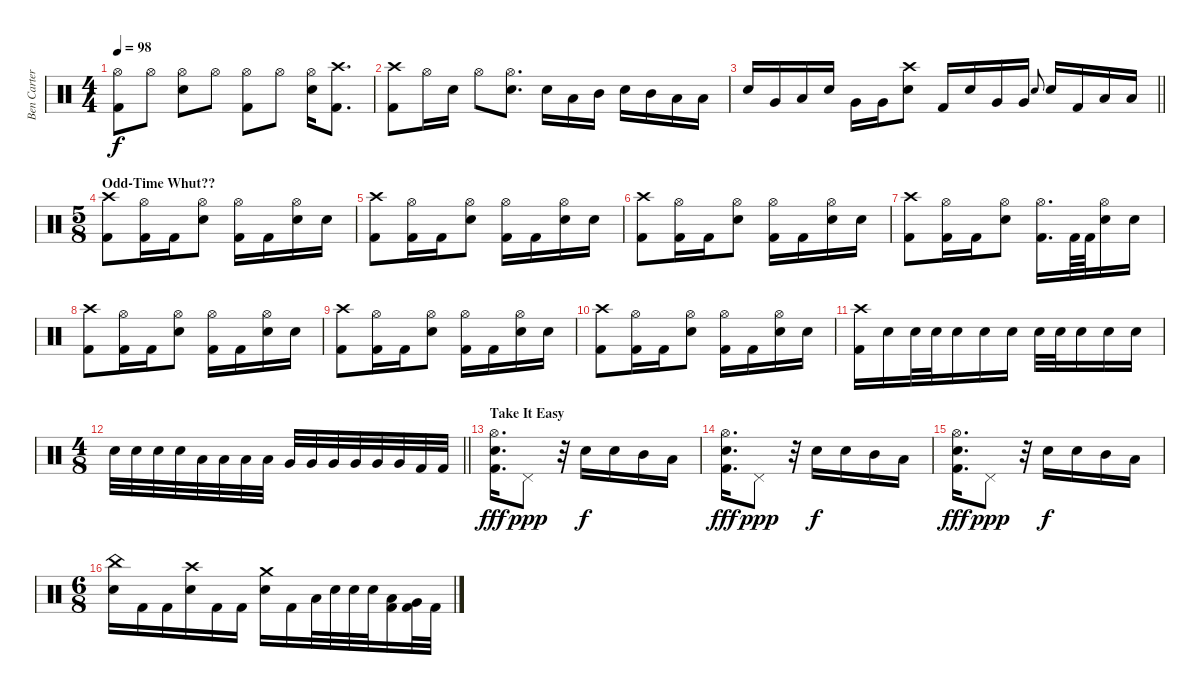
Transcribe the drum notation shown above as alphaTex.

\track ("Ben Carter" "Ben Carter") {instrument percussion}
\staff {score}
\articulation defaults
\ts (4 4)
\tempo 98
\clef neutral
\ks c
("Hi-Hat (open)" "Kick (hit) 2").8{dy f} "Hi-Hat (open)".8 ("Hi-Hat (open)" "Snare (hit) 2").8 "Hi-Hat (open)".8 ("Hi-Hat (open)" "Kick (hit) 2").8 "Hi-Hat (open)".8 ("Hi-Hat (open)" "Snare (hit) 2").16 ("Crash high (hit)" "Kick (hit) 2").8{d} |
("Crash high (hit)" "Kick (hit) 2").8 "Hi-Hat (open)".16 "Snare (hit) 2".16 "Hi-Hat (open)".8 ("Hi-Hat (open)" "Snare (hit) 2").8{d} "Snare (hit) 2".16 "Low Tom (hit)".16 "Mid Tom (hit)".16 "Snare (hit) 2".16 "Mid Tom (hit)".16 "Low Tom (hit)".16 "Low Tom (hit)".16 |
\barLineRight lightlight "Snare (hit) 2".16 "Very Low Tom (hit)".16 "Low Tom (hit)".16 "Snare (hit) 2".16 "Very Low Tom (hit)".16 "Very Low Tom (hit)".16
("Crash high (hit)" "Snare (hit) 2").8 "Kick (hit) 2".16 "Snare (hit) 2".16 "Very Low Tom (hit)".16 "Very Low Tom (hit)".16 "Snare (hit) 2".8{gr onbeat} "Snare (hit) 2".16 "Kick (hit) 2".16 "Low Floor Tom (hit)".16 "Low Floor Tom (hit)".16 |
\ts (5 8)
\section ("" "Odd-Time Whut??")
("Crash high (hit)" "Kick (hit) 2").8 ("Hi-Hat (open)" "Kick (hit) 2").16 "Kick (hit) 2".16 ("Hi-Hat (open)" "Snare (hit) 2").8 ("Hi-Hat (open)" "Kick (hit) 2").16 "Kick (hit) 2".16 ("Hi-Hat (open)" "Snare (hit) 2").16 "Snare (hit) 2".16 |
("Crash high (hit)" "Kick (hit) 2").8 ("Hi-Hat (open)" "Kick (hit) 2").16 "Kick (hit) 2".16 ("Hi-Hat (open)" "Snare (hit) 2").8 ("Hi-Hat (open)" "Kick (hit) 2").16 "Kick (hit) 2".16 ("Hi-Hat (open)" "Snare (hit) 2").16 "Snare (hit) 2".16 |
("Crash high (hit)" "Kick (hit) 2").8 ("Hi-Hat (open)" "Kick (hit) 2").16 "Kick (hit) 2".16 ("Hi-Hat (open)" "Snare (hit) 2").8 ("Hi-Hat (open)" "Kick (hit) 2").16 "Kick (hit) 2".16 ("Hi-Hat (open)" "Snare (hit) 2").16 "Snare (hit) 2".16 |
("Crash high (hit)" "Kick (hit) 2").8 ("Hi-Hat (open)" "Kick (hit) 2").16 "Kick (hit) 2".16 ("Hi-Hat (open)" "Snare (hit) 2").8 ("Hi-Hat (open)" "Kick (hit) 2").16{d} "Kick (hit) 2".64 "Kick (hit) 2".64 ("Hi-Hat (open)" "Snare (hit) 2").16 "Snare (hit) 2".16 |
("Crash high (hit)" "Kick (hit) 2").8 ("Hi-Hat (open)" "Kick (hit) 2").16 "Kick (hit) 2".16 ("Hi-Hat (open)" "Snare (hit) 2").8 ("Hi-Hat (open)" "Kick (hit) 2").16 "Kick (hit) 2".16 ("Hi-Hat (open)" "Snare (hit) 2").16 "Snare (hit) 2".16 |
("Crash high (hit)" "Kick (hit) 2").8 ("Hi-Hat (open)" "Kick (hit) 2").16 "Kick (hit) 2".16 ("Hi-Hat (open)" "Snare (hit) 2").8 ("Hi-Hat (open)" "Kick (hit) 2").16 "Kick (hit) 2".16 ("Hi-Hat (open)" "Snare (hit) 2").16 "Snare (hit) 2".16 |
("Crash high (hit)" "Kick (hit) 2").8 ("Hi-Hat (open)" "Kick (hit) 2").16 "Kick (hit) 2".16 ("Hi-Hat (open)" "Snare (hit) 2").8 ("Hi-Hat (open)" "Kick (hit) 2").16 "Kick (hit) 2".16 ("Hi-Hat (open)" "Snare (hit) 2").16 "Snare (hit) 2".16 |
("Crash high (hit)" "Kick (hit) 2").16 "Snare (hit) 2".16 "Snare (hit) 2".32 "Snare (hit) 2".32 "Snare (hit) 2".16 "Snare (hit) 2".16 "Snare (hit) 2".16 "Snare (hit) 2".32 "Snare (hit) 2".32 "Snare (hit) 2".16 "Snare (hit) 2".16 "Snare (hit) 2".16 |
\ts (4 8)
\barLineRight lightlight "Snare (hit) 2".32 "Snare (hit) 2".32 "Snare (hit) 2".32 "Snare (hit) 2".32 "Low Tom (hit)".32 "Low Tom (hit)".32 "Low Tom (hit)".32 "Low Tom (hit)".32 "Very Low Tom (hit)".32 "Very Low Tom (hit)".32 "Very Low Tom (hit)".32 "Very Low Tom (hit)".32 "Very Low Tom (hit)".32 "Very Low Tom (hit)".32 "Kick (hit) 2".32 "Kick (hit) 2".32
|
\section ("" "Take It Easy")
("Hi-Hat (open)" "Snare (hit) 2" "Kick (hit) 2").16{d dy fff} "Pedal Hi-Hat (hit)".8{dy ppp} r.32 "Snare (hit) 2".16{dy f} "Snare (hit) 2".16 "Mid Tom (hit)".16 "Low Tom (hit)".16 |
("Hi-Hat (open)" "Snare (hit) 2" "Kick (hit) 2").16{d dy fff} "Pedal Hi-Hat (hit)".8{dy ppp} r.32 "Snare (hit) 2".16{dy f} "Snare (hit) 2".16 "Mid Tom (hit)".16 "Low Tom (hit)".16 |
("Hi-Hat (open)" "Snare (hit) 2" "Kick (hit) 2").16{d dy fff} "Pedal Hi-Hat (hit)".8{dy ppp} r.32 "Snare (hit) 2".16{dy f} "Snare (hit) 2".16 "Mid Tom (hit)".16 "Low Tom (hit)".16 |
\ts (6 8)
("China (hit)" "Snare (hit) 2").16 "Kick (hit) 2".16 "Kick (hit) 2".16 ("Crash high (hit)" "Snare (hit) 2").16 "Kick (hit) 2".16 "Kick (hit) 2".16 ("Crash medium (hit)" "Snare (hit) 2").16 "Kick (hit) 2".16 "Low Tom (hit)".32 "Snare (hit) 2".32 "Snare (hit) 2".32 "Snare (hit) 2".32 ("Low Tom (hit)" "Kick (hit) 2").16 ("Very Low Tom (hit)" "Kick (hit) 2").32 "Kick (hit) 2".32
